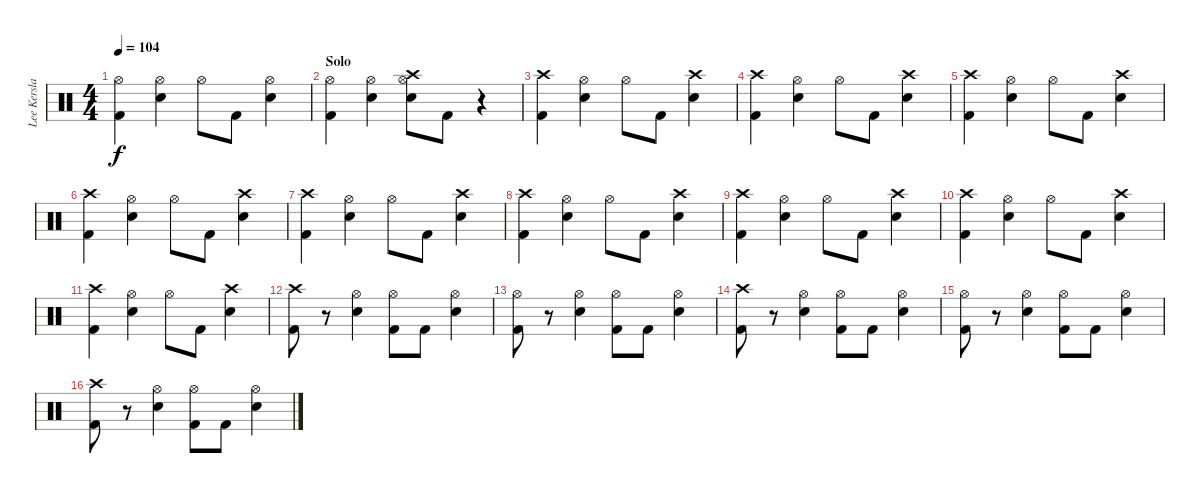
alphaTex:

\track ("Lee Kerslake" "Lee Kersla") {instrument percussion}
\staff {score}
\articulation defaults
\ts (4 4)
\tempo 104
\clef neutral
\ks c
("Hi-Hat (open)" "Kick (hit) 2").4{dy f} ("Hi-Hat (open)" "Electric Snare (hit)").4 "Hi-Hat (open)".8 "Kick (hit) 2".8 ("Hi-Hat (open)" "Electric Snare (hit)").4 |
\section ("" "Solo")
("Hi-Hat (open)" "Kick (hit) 2").4 ("Hi-Hat (open)" "Electric Snare (hit)").4 ("Crash high (hit)" "Hi-Hat (open)" "Electric Snare (hit)").8 "Kick (hit) 2".8 r.4 |
("Crash high (hit)" "Kick (hit) 2").4 ("Hi-Hat (open)" "Electric Snare (hit)").4 "Hi-Hat (open)".8 "Kick (hit) 2".8 ("Crash high (hit)" "Electric Snare (hit)").4 |
("Crash high (hit)" "Kick (hit) 2").4 ("Hi-Hat (open)" "Electric Snare (hit)").4 "Hi-Hat (open)".8 "Kick (hit) 2".8 ("Crash high (hit)" "Electric Snare (hit)").4 |
("Crash high (hit)" "Kick (hit) 2").4 ("Hi-Hat (open)" "Electric Snare (hit)").4 "Hi-Hat (open)".8 "Kick (hit) 2".8 ("Crash high (hit)" "Electric Snare (hit)").4 |
("Crash high (hit)" "Kick (hit) 2").4 ("Hi-Hat (open)" "Electric Snare (hit)").4 "Hi-Hat (open)".8 "Kick (hit) 2".8 ("Crash high (hit)" "Electric Snare (hit)").4 |
("Crash high (hit)" "Kick (hit) 2").4 ("Hi-Hat (open)" "Electric Snare (hit)").4 "Hi-Hat (open)".8 "Kick (hit) 2".8 ("Crash high (hit)" "Electric Snare (hit)").4 |
("Crash high (hit)" "Kick (hit) 2").4 ("Hi-Hat (open)" "Electric Snare (hit)").4 "Hi-Hat (open)".8 "Kick (hit) 2".8 ("Crash high (hit)" "Electric Snare (hit)").4 |
("Crash high (hit)" "Kick (hit) 2").4 ("Hi-Hat (open)" "Electric Snare (hit)").4 "Hi-Hat (open)".8 "Kick (hit) 2".8 ("Crash high (hit)" "Electric Snare (hit)").4 |
("Crash high (hit)" "Kick (hit) 2").4 ("Hi-Hat (open)" "Electric Snare (hit)").4 "Hi-Hat (open)".8 "Kick (hit) 2".8 ("Crash high (hit)" "Electric Snare (hit)").4 |
("Crash high (hit)" "Kick (hit) 2").4 ("Hi-Hat (open)" "Electric Snare (hit)").4 "Hi-Hat (open)".8 "Kick (hit) 2".8 ("Crash high (hit)" "Electric Snare (hit)").4 |
("Crash high (hit)" "Kick (hit) 2").8 r.8 ("Hi-Hat (open)" "Electric Snare (hit)").4 ("Hi-Hat (open)" "Kick (hit) 2").8 "Kick (hit) 2".8 ("Hi-Hat (open)" "Electric Snare (hit)").4 |
("Hi-Hat (open)" "Kick (hit) 2").8 r.8 ("Hi-Hat (open)" "Electric Snare (hit)").4 ("Hi-Hat (open)" "Kick (hit) 2").8 "Kick (hit) 2".8 ("Hi-Hat (open)" "Electric Snare (hit)").4 |
("Crash high (hit)" "Kick (hit) 2").8 r.8 ("Hi-Hat (open)" "Electric Snare (hit)").4 ("Hi-Hat (open)" "Kick (hit) 2").8 "Kick (hit) 2".8 ("Hi-Hat (open)" "Electric Snare (hit)").4 |
("Hi-Hat (open)" "Kick (hit) 2").8 r.8 ("Hi-Hat (open)" "Electric Snare (hit)").4 ("Hi-Hat (open)" "Kick (hit) 2").8 "Kick (hit) 2".8 ("Hi-Hat (open)" "Electric Snare (hit)").4 |
("Crash high (hit)" "Kick (hit) 2").8 r.8 ("Hi-Hat (open)" "Electric Snare (hit)").4 ("Hi-Hat (open)" "Kick (hit) 2").8 "Kick (hit) 2".8 ("Hi-Hat (open)" "Electric Snare (hit)").4
